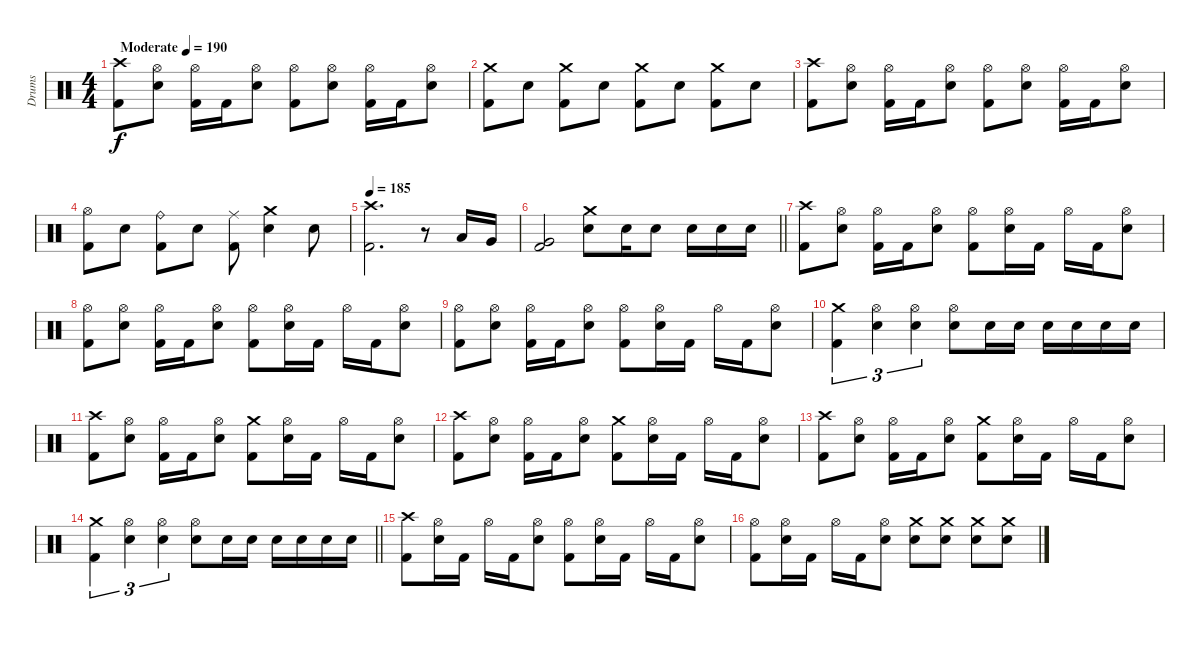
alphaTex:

\track ("Drums" "Drums") {instrument percussion}
\staff {score}
\articulation defaults
\ts (4 4)
\tempo (190 "Moderate")
\clef neutral
\ks c
("Crash high (hit)" "Kick (hit) 2").8{dy f} ("Hi-Hat (open)" "Electric Snare (hit)").8 ("Hi-Hat (open)" "Kick (hit) 2").16 "Kick (hit) 2".16 ("Hi-Hat (open)" "Electric Snare (hit)").8 ("Hi-Hat (open)" "Kick (hit) 2").8 ("Hi-Hat (open)" "Electric Snare (hit)").8 ("Hi-Hat (open)" "Kick (hit) 2").16 "Kick (hit) 2".16 ("Hi-Hat (open)" "Electric Snare (hit)").8 |
("Crash medium (hit)" "Kick (hit) 2").8 "Electric Snare (hit)".8 ("Crash medium (hit)" "Kick (hit) 2").8 "Electric Snare (hit)".8 ("Crash medium (hit)" "Kick (hit) 2").8 "Electric Snare (hit)".8 ("Crash medium (hit)" "Kick (hit) 2").8 "Electric Snare (hit)".8 |
("Crash high (hit)" "Kick (hit) 2").8 ("Hi-Hat (open)" "Electric Snare (hit)").8 ("Hi-Hat (open)" "Kick (hit) 2").16 "Kick (hit) 2".16 ("Hi-Hat (open)" "Electric Snare (hit)").8 ("Hi-Hat (open)" "Kick (hit) 2").8 ("Hi-Hat (open)" "Electric Snare (hit)").8 ("Hi-Hat (open)" "Kick (hit) 2").16 "Kick (hit) 2".16 ("Hi-Hat (open)" "Electric Snare (hit)").8 |
("Hi-Hat (open)" "Kick (hit) 2").8 "Electric Snare (hit)".8 ("Ride (bell)" "Kick (hit) 2").8 "Electric Snare (hit)".8 ("Ride (middle)" "Kick (hit) 2").8 ("Crash medium (hit)" "Electric Snare (hit)").4 "Electric Snare (hit)".8 |
\tempo 185
("Crash high (hit)" "Kick (hit) 2").2{d} r.8 "Low Tom (hit)".16 "Very Low Tom (hit)".16 |
\barLineRight lightlight
("Very Low Tom (hit)" "Kick (hit) 2").2 ("Crash medium (hit)" "Electric Snare (hit)").8 "Electric Snare (hit)".16 "Electric Snare (hit)".8 "Electric Snare (hit)".16 "Electric Snare (hit)".16 "Electric Snare (hit)".16 |
\section ("" "")
("Crash high (hit)" "Kick (hit) 2").8 ("Hi-Hat (open)" "Electric Snare (hit)").8 ("Hi-Hat (open)" "Kick (hit) 2").16 "Kick (hit) 2".16 ("Hi-Hat (open)" "Electric Snare (hit)").8 ("Hi-Hat (open)" "Kick (hit) 2").8 ("Hi-Hat (open)" "Electric Snare (hit)").16 "Kick (hit) 2".16 "Hi-Hat (open)".16 "Kick (hit) 2".16 ("Hi-Hat (open)" "Electric Snare (hit)").8 |
("Hi-Hat (open)" "Kick (hit) 2").8 ("Hi-Hat (open)" "Electric Snare (hit)").8 ("Hi-Hat (open)" "Kick (hit) 2").16 "Kick (hit) 2".16 ("Hi-Hat (open)" "Electric Snare (hit)").8 ("Hi-Hat (open)" "Kick (hit) 2").8 ("Hi-Hat (open)" "Electric Snare (hit)").16 "Kick (hit) 2".16 "Hi-Hat (open)".16 "Kick (hit) 2".16 ("Hi-Hat (open)" "Electric Snare (hit)").8 |
("Hi-Hat (open)" "Kick (hit) 2").8 ("Hi-Hat (open)" "Electric Snare (hit)").8 ("Hi-Hat (open)" "Kick (hit) 2").16 "Kick (hit) 2".16 ("Hi-Hat (open)" "Electric Snare (hit)").8 ("Hi-Hat (open)" "Kick (hit) 2").8 ("Hi-Hat (open)" "Electric Snare (hit)").16 "Kick (hit) 2".16 "Hi-Hat (open)".16 "Kick (hit) 2".16 ("Hi-Hat (open)" "Electric Snare (hit)").8 |
("Crash medium (hit)" "Kick (hit) 2").4{tu (3 2)} ("Hi-Hat (open)" "Electric Snare (hit)").4{tu (3 2)} ("Hi-Hat (open)" "Electric Snare (hit)").4{tu (3 2)} ("Hi-Hat (open)" "Electric Snare (hit)").8 "Electric Snare (hit)".16 "Electric Snare (hit)".16 "Electric Snare (hit)".16 "Electric Snare (hit)".16 "Electric Snare (hit)".16 "Electric Snare (hit)".16 |
("Crash high (hit)" "Kick (hit) 2").8 ("Hi-Hat (open)" "Electric Snare (hit)").8 ("Hi-Hat (open)" "Kick (hit) 2").16 "Kick (hit) 2".16 ("Hi-Hat (open)" "Electric Snare (hit)").8 ("Crash medium (hit)" "Kick (hit) 2").8 ("Hi-Hat (open)" "Electric Snare (hit)").16 "Kick (hit) 2".16 "Hi-Hat (open)".16 "Kick (hit) 2".16 ("Hi-Hat (open)" "Electric Snare (hit)").8 |
("Crash high (hit)" "Kick (hit) 2").8 ("Hi-Hat (open)" "Electric Snare (hit)").8 ("Hi-Hat (open)" "Kick (hit) 2").16 "Kick (hit) 2".16 ("Hi-Hat (open)" "Electric Snare (hit)").8 ("Crash medium (hit)" "Kick (hit) 2").8 ("Hi-Hat (open)" "Electric Snare (hit)").16 "Kick (hit) 2".16 "Hi-Hat (open)".16 "Kick (hit) 2".16 ("Hi-Hat (open)" "Electric Snare (hit)").8 |
("Crash high (hit)" "Kick (hit) 2").8 ("Hi-Hat (open)" "Electric Snare (hit)").8 ("Hi-Hat (open)" "Kick (hit) 2").16 "Kick (hit) 2".16 ("Hi-Hat (open)" "Electric Snare (hit)").8 ("Crash medium (hit)" "Kick (hit) 2").8 ("Hi-Hat (open)" "Electric Snare (hit)").16 "Kick (hit) 2".16 "Hi-Hat (open)".16 "Kick (hit) 2".16 ("Hi-Hat (open)" "Electric Snare (hit)").8 |
\barLineRight lightlight
("Crash medium (hit)" "Kick (hit) 2").4{tu (3 2)} ("Hi-Hat (open)" "Electric Snare (hit)").4{tu (3 2)} ("Hi-Hat (open)" "Electric Snare (hit)").4{tu (3 2)} ("Hi-Hat (open)" "Electric Snare (hit)").8 "Electric Snare (hit)".16 "Electric Snare (hit)".16 "Electric Snare (hit)".16 "Electric Snare (hit)".16 "Electric Snare (hit)".16 "Electric Snare (hit)".16 |
\section ("" "")
("Crash high (hit)" "Kick (hit) 2").8 ("Hi-Hat (open)" "Electric Snare (hit)").16 "Kick (hit) 2".16 "Hi-Hat (open)".16 "Kick (hit) 2".16 ("Hi-Hat (open)" "Electric Snare (hit)").8 ("Hi-Hat (open)" "Kick (hit) 2").8 ("Hi-Hat (open)" "Electric Snare (hit)").16 "Kick (hit) 2".16 "Hi-Hat (open)".16 "Kick (hit) 2".16 ("Hi-Hat (open)" "Electric Snare (hit)").8 |
("Hi-Hat (open)" "Kick (hit) 2").8 ("Hi-Hat (open)" "Electric Snare (hit)").16 "Kick (hit) 2".16 "Hi-Hat (open)".16 "Kick (hit) 2".16 ("Hi-Hat (open)" "Electric Snare (hit)").8 ("Crash medium (hit)" "Electric Snare (hit)").8 ("Crash medium (hit)" "Electric Snare (hit)").8 ("Crash medium (hit)" "Electric Snare (hit)").8 ("Crash medium (hit)" "Electric Snare (hit)").8
